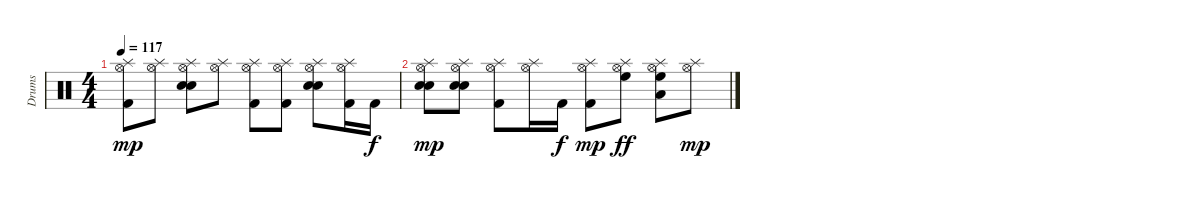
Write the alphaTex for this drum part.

\track ("Drums" "Drums") {instrument percussion}
\staff {score}
\articulation defaults
\ts (4 4)
\tempo 117
\clef neutral
\ks c
("Splash (hit)" "Hi-Hat (open)" "Kick (hit) 2").8{dy mp} ("Splash (hit)" "Hi-Hat (open)").8 ("Splash (hit)" "Hi-Hat (open)" "Electric Snare (hit)" "Snare (hit) 2").8 ("Splash (hit)" "Hi-Hat (open)").8 ("Splash (hit)" "Hi-Hat (open)" "Kick (hit) 2").8 ("Splash (hit)" "Hi-Hat (open)" "Kick (hit) 2").8 ("Splash (hit)" "Hi-Hat (open)" "Electric Snare (hit)" "Snare (hit) 2").8 ("Splash (hit)" "Hi-Hat (open)" "Kick (hit) 2").16 "Kick (hit) 2".16{dy f} |
("Splash (hit)" "Hi-Hat (open)" "Electric Snare (hit)" "Snare (hit) 2").8{dy mp} ("Splash (hit)" "Hi-Hat (open)" "Electric Snare (hit)" "Snare (hit) 2").8 ("Splash (hit)" "Hi-Hat (open)" "Kick (hit) 2").8 ("Splash (hit)" "Hi-Hat (open)").16 "Kick (hit) 2".16{dy f} ("Splash (hit)" "Hi-Hat (open)" "Kick (hit) 2").8{dy mp} ("Splash (hit)" "Hi-Hat (open)" "High Floor Tom (hit)").8{dy ff} ("Splash (hit)" "Hi-Hat (open)" "Low Tom (hit)" "High Floor Tom (hit)").8 ("Splash (hit)" "Hi-Hat (open)").8{dy mp}
